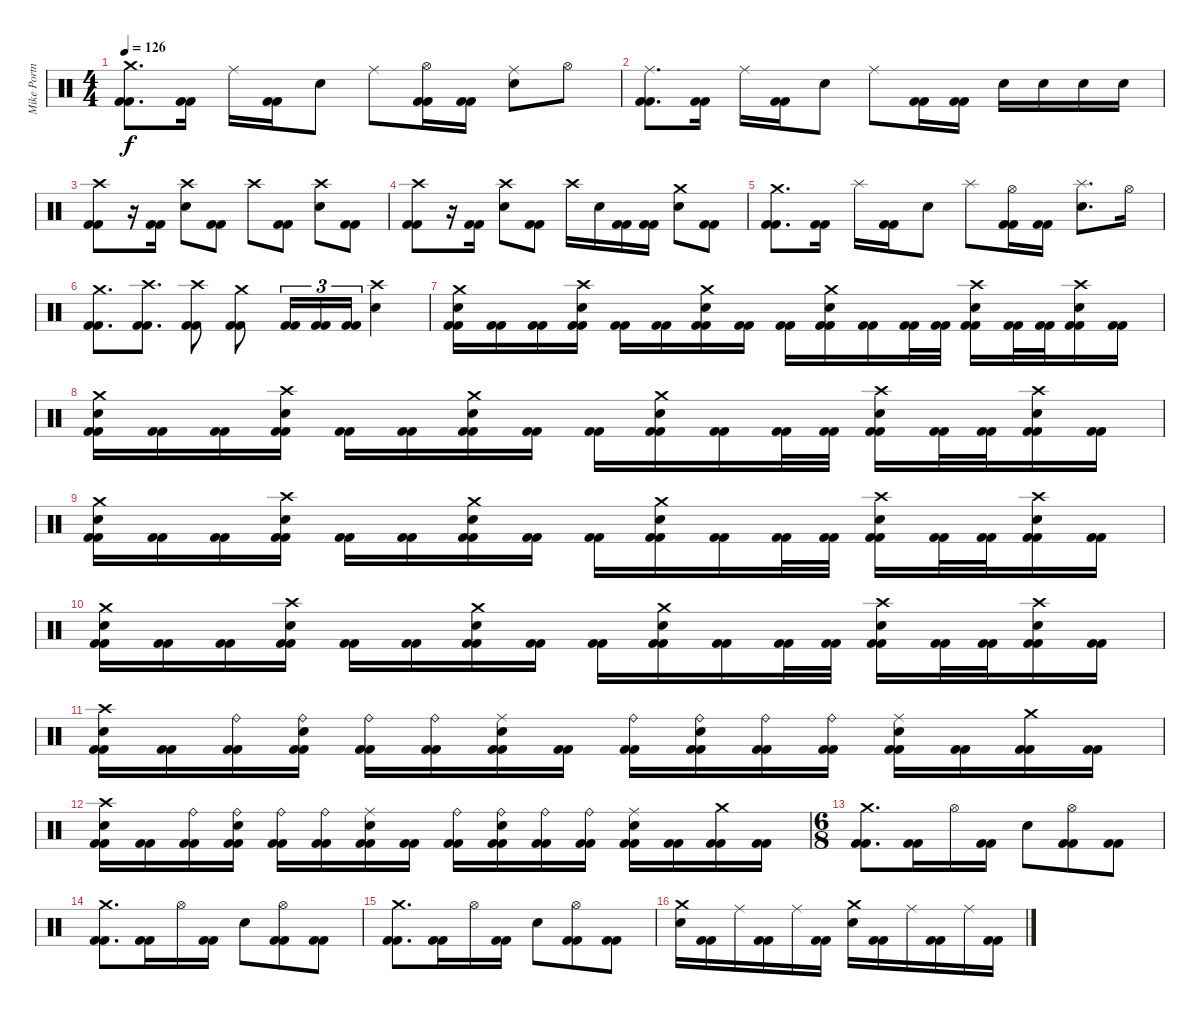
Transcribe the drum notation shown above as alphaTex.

\track ("Mike Portnoy" "Mike Portn") {instrument percussion}
\staff {score}
\articulation defaults
\ts (4 4)
\tempo 126
\clef neutral
\ks c
("Crash medium (hit)" "Kick (hit) 2" "Kick (hit) 2").8{d dy f} ("Kick (hit) 2" "Kick (hit) 2").16 "Ride (middle)".16 ("Kick (hit) 2" "Kick (hit) 2").16 "Electric Snare (hit)".8 "Ride (middle)".8 ("Hi-Hat (open)" "Kick (hit) 2" "Kick (hit) 2").16 ("Kick (hit) 2" "Kick (hit) 2").16 ("Ride (middle)" "Electric Snare (hit)").8 "Hi-Hat (open)".8 |
("Ride (middle)" "Kick (hit) 2" "Kick (hit) 2").8{d} ("Kick (hit) 2" "Kick (hit) 2").16 "Ride (middle)".16 ("Kick (hit) 2" "Kick (hit) 2").16 "Electric Snare (hit)".8 "Ride (middle)".8 ("Kick (hit) 2" "Kick (hit) 2").16 ("Kick (hit) 2" "Kick (hit) 2").16 "Electric Snare (hit)".16 "Electric Snare (hit)".16 "Electric Snare (hit)".16 "Electric Snare (hit)".16 |
("Crash high (hit)" "Kick (hit) 2" "Kick (hit) 2").8 r.16 ("Kick (hit) 2" "Kick (hit) 2").16 ("Crash high (hit)" "Electric Snare (hit)").8 ("Kick (hit) 2" "Kick (hit) 2").8 "Crash high (hit)".8 ("Kick (hit) 2" "Kick (hit) 2").8 ("Crash high (hit)" "Electric Snare (hit)").8 ("Kick (hit) 2" "Kick (hit) 2").8 |
("Crash high (hit)" "Kick (hit) 2" "Kick (hit) 2").8 r.16 ("Kick (hit) 2" "Kick (hit) 2").16 ("Crash high (hit)" "Electric Snare (hit)").8 ("Kick (hit) 2" "Kick (hit) 2").8 "Crash high (hit)".16 "Electric Snare (hit)".16 ("Kick (hit) 2" "Kick (hit) 2").16 ("Kick (hit) 2" "Kick (hit) 2").16 ("Crash medium (hit)" "Electric Snare (hit)").8 ("Kick (hit) 2" "Kick (hit) 2").8 |
("Crash medium (hit)" "Kick (hit) 2" "Kick (hit) 2").8{d} ("Kick (hit) 2" "Kick (hit) 2").16 "Splash (hit)".16 ("Kick (hit) 2" "Kick (hit) 2").16 "Electric Snare (hit)".8 "Splash (hit)".8 ("Hi-Hat (open)" "Kick (hit) 2" "Kick (hit) 2").16 ("Kick (hit) 2" "Kick (hit) 2").16 ("Splash (hit)" "Electric Snare (hit)").8{d} "Hi-Hat (open)".16 |
("Crash medium (hit)" "Kick (hit) 2" "Kick (hit) 2").8{d} ("Crash high (hit)" "Kick (hit) 2" "Kick (hit) 2").8{d} ("Crash high (hit)" "Kick (hit) 2" "Kick (hit) 2").8 ("Crash medium (hit)" "Kick (hit) 2" "Kick (hit) 2").8 ("Kick (hit) 2" "Kick (hit) 2").16{tu (3 2)} ("Kick (hit) 2" "Kick (hit) 2").16{tu (3 2)} ("Kick (hit) 2" "Kick (hit) 2").16{tu (3 2)} ("Crash high (hit)" "Electric Snare (hit)").4 |
("Crash medium (hit)" "Electric Snare (hit)" "Kick (hit) 2" "Kick (hit) 2").16 ("Kick (hit) 2" "Kick (hit) 2").16 ("Kick (hit) 2" "Kick (hit) 2").16 ("Crash high (hit)" "Electric Snare (hit)" "Kick (hit) 2" "Kick (hit) 2").16 ("Kick (hit) 2" "Kick (hit) 2").16 ("Kick (hit) 2" "Kick (hit) 2").16 ("Crash medium (hit)" "Electric Snare (hit)" "Kick (hit) 2" "Kick (hit) 2").16 ("Kick (hit) 2" "Kick (hit) 2").16 ("Kick (hit) 2" "Kick (hit) 2").16 ("Crash medium (hit)" "Electric Snare (hit)" "Kick (hit) 2" "Kick (hit) 2").16 ("Kick (hit) 2" "Kick (hit) 2").16 ("Kick (hit) 2" "Kick (hit) 2").32 ("Kick (hit) 2" "Kick (hit) 2").32 ("Crash high (hit)" "Electric Snare (hit)" "Kick (hit) 2" "Kick (hit) 2").16 ("Kick (hit) 2" "Kick (hit) 2").32 ("Kick (hit) 2" "Kick (hit) 2").32 ("Crash high (hit)" "Electric Snare (hit)" "Kick (hit) 2" "Kick (hit) 2").16 ("Kick (hit) 2" "Kick (hit) 2").16 |
("Crash medium (hit)" "Electric Snare (hit)" "Kick (hit) 2" "Kick (hit) 2").16 ("Kick (hit) 2" "Kick (hit) 2").16 ("Kick (hit) 2" "Kick (hit) 2").16 ("Crash high (hit)" "Electric Snare (hit)" "Kick (hit) 2" "Kick (hit) 2").16 ("Kick (hit) 2" "Kick (hit) 2").16 ("Kick (hit) 2" "Kick (hit) 2").16 ("Crash medium (hit)" "Electric Snare (hit)" "Kick (hit) 2" "Kick (hit) 2").16 ("Kick (hit) 2" "Kick (hit) 2").16 ("Kick (hit) 2" "Kick (hit) 2").16 ("Crash medium (hit)" "Electric Snare (hit)" "Kick (hit) 2" "Kick (hit) 2").16 ("Kick (hit) 2" "Kick (hit) 2").16 ("Kick (hit) 2" "Kick (hit) 2").32 ("Kick (hit) 2" "Kick (hit) 2").32 ("Crash high (hit)" "Electric Snare (hit)" "Kick (hit) 2" "Kick (hit) 2").16 ("Kick (hit) 2" "Kick (hit) 2").32 ("Kick (hit) 2" "Kick (hit) 2").32 ("Crash high (hit)" "Electric Snare (hit)" "Kick (hit) 2" "Kick (hit) 2").16 ("Kick (hit) 2" "Kick (hit) 2").16 |
("Crash medium (hit)" "Electric Snare (hit)" "Kick (hit) 2" "Kick (hit) 2").16 ("Kick (hit) 2" "Kick (hit) 2").16 ("Kick (hit) 2" "Kick (hit) 2").16 ("Crash high (hit)" "Electric Snare (hit)" "Kick (hit) 2" "Kick (hit) 2").16 ("Kick (hit) 2" "Kick (hit) 2").16 ("Kick (hit) 2" "Kick (hit) 2").16 ("Crash medium (hit)" "Electric Snare (hit)" "Kick (hit) 2" "Kick (hit) 2").16 ("Kick (hit) 2" "Kick (hit) 2").16 ("Kick (hit) 2" "Kick (hit) 2").16 ("Crash medium (hit)" "Electric Snare (hit)" "Kick (hit) 2" "Kick (hit) 2").16 ("Kick (hit) 2" "Kick (hit) 2").16 ("Kick (hit) 2" "Kick (hit) 2").32 ("Kick (hit) 2" "Kick (hit) 2").32 ("Crash high (hit)" "Electric Snare (hit)" "Kick (hit) 2" "Kick (hit) 2").16 ("Kick (hit) 2" "Kick (hit) 2").32 ("Kick (hit) 2" "Kick (hit) 2").32 ("Crash high (hit)" "Electric Snare (hit)" "Kick (hit) 2" "Kick (hit) 2").16 ("Kick (hit) 2" "Kick (hit) 2").16 |
("Crash medium (hit)" "Electric Snare (hit)" "Kick (hit) 2" "Kick (hit) 2").16 ("Kick (hit) 2" "Kick (hit) 2").16 ("Kick (hit) 2" "Kick (hit) 2").16 ("Crash high (hit)" "Electric Snare (hit)" "Kick (hit) 2" "Kick (hit) 2").16 ("Kick (hit) 2" "Kick (hit) 2").16 ("Kick (hit) 2" "Kick (hit) 2").16 ("Crash medium (hit)" "Electric Snare (hit)" "Kick (hit) 2" "Kick (hit) 2").16 ("Kick (hit) 2" "Kick (hit) 2").16 ("Kick (hit) 2" "Kick (hit) 2").16 ("Crash medium (hit)" "Electric Snare (hit)" "Kick (hit) 2" "Kick (hit) 2").16 ("Kick (hit) 2" "Kick (hit) 2").16 ("Kick (hit) 2" "Kick (hit) 2").32 ("Kick (hit) 2" "Kick (hit) 2").32 ("Crash high (hit)" "Electric Snare (hit)" "Kick (hit) 2" "Kick (hit) 2").16 ("Kick (hit) 2" "Kick (hit) 2").32 ("Kick (hit) 2" "Kick (hit) 2").32 ("Crash high (hit)" "Electric Snare (hit)" "Kick (hit) 2" "Kick (hit) 2").16 ("Kick (hit) 2" "Kick (hit) 2").16 |
("Crash high (hit)" "Electric Snare (hit)" "Kick (hit) 2" "Kick (hit) 2").16 ("Kick (hit) 2" "Kick (hit) 2").16 ("Ride (bell)" "Kick (hit) 2" "Kick (hit) 2").16 ("Ride (bell)" "Electric Snare (hit)" "Kick (hit) 2" "Kick (hit) 2").16 ("Ride (bell)" "Kick (hit) 2" "Kick (hit) 2").16 ("Ride (bell)" "Kick (hit) 2" "Kick (hit) 2").16 ("Ride (middle)" "Electric Snare (hit)" "Kick (hit) 2" "Kick (hit) 2").16 ("Kick (hit) 2" "Kick (hit) 2").16 ("Ride (bell)" "Kick (hit) 2" "Kick (hit) 2").16 ("Ride (bell)" "Electric Snare (hit)" "Kick (hit) 2" "Kick (hit) 2").16 ("Ride (bell)" "Kick (hit) 2" "Kick (hit) 2").16 ("Ride (bell)" "Kick (hit) 2" "Kick (hit) 2").16 ("Ride (middle)" "Electric Snare (hit)" "Kick (hit) 2" "Kick (hit) 2").16 ("Kick (hit) 2" "Kick (hit) 2").16 ("Crash medium (hit)" "Kick (hit) 2" "Kick (hit) 2").16 ("Kick (hit) 2" "Kick (hit) 2").16 |
("Crash high (hit)" "Electric Snare (hit)" "Kick (hit) 2" "Kick (hit) 2").16 ("Kick (hit) 2" "Kick (hit) 2").16 ("Ride (bell)" "Kick (hit) 2" "Kick (hit) 2").16 ("Ride (bell)" "Electric Snare (hit)" "Kick (hit) 2" "Kick (hit) 2").16 ("Ride (bell)" "Kick (hit) 2" "Kick (hit) 2").16 ("Ride (bell)" "Kick (hit) 2" "Kick (hit) 2").16 ("Ride (middle)" "Electric Snare (hit)" "Kick (hit) 2" "Kick (hit) 2").16 ("Kick (hit) 2" "Kick (hit) 2").16 ("Ride (bell)" "Kick (hit) 2" "Kick (hit) 2").16 ("Ride (bell)" "Electric Snare (hit)" "Kick (hit) 2" "Kick (hit) 2").16 ("Ride (bell)" "Kick (hit) 2" "Kick (hit) 2").16 ("Ride (bell)" "Kick (hit) 2" "Kick (hit) 2").16 ("Ride (middle)" "Electric Snare (hit)" "Kick (hit) 2" "Kick (hit) 2").16 ("Kick (hit) 2" "Kick (hit) 2").16 ("Crash medium (hit)" "Kick (hit) 2" "Kick (hit) 2").16 ("Kick (hit) 2" "Kick (hit) 2").16 |
\ts (6 8)
("Crash medium (hit)" "Kick (hit) 2" "Kick (hit) 2").8{d} ("Kick (hit) 2" "Kick (hit) 2").16 "Hi-Hat (open)".16 ("Kick (hit) 2" "Kick (hit) 2").16 "Snare (hit) 2".8 ("Hi-Hat (open)" "Kick (hit) 2" "Kick (hit) 2").8 ("Kick (hit) 2" "Kick (hit) 2").8 |
("Crash medium (hit)" "Kick (hit) 2" "Kick (hit) 2").8{d} ("Kick (hit) 2" "Kick (hit) 2").16 "Hi-Hat (open)".16 ("Kick (hit) 2" "Kick (hit) 2").16 "Snare (hit) 2".8 ("Hi-Hat (open)" "Kick (hit) 2" "Kick (hit) 2").8 ("Kick (hit) 2" "Kick (hit) 2").8 |
("Crash medium (hit)" "Kick (hit) 2" "Kick (hit) 2").8{d} ("Kick (hit) 2" "Kick (hit) 2").16 "Hi-Hat (open)".16 ("Kick (hit) 2" "Kick (hit) 2").16 "Snare (hit) 2".8 ("Hi-Hat (open)" "Kick (hit) 2" "Kick (hit) 2").8 ("Kick (hit) 2" "Kick (hit) 2").8 |
("Crash medium (hit)" "Electric Snare (hit)").16 ("Kick (hit) 2" "Kick (hit) 2").16 "Ride (middle)".16 ("Kick (hit) 2" "Kick (hit) 2").16 "Ride (middle)".16 ("Kick (hit) 2" "Kick (hit) 2").16 ("Crash medium (hit)" "Electric Snare (hit)").16 ("Kick (hit) 2" "Kick (hit) 2").16 "Ride (middle)".16 ("Kick (hit) 2" "Kick (hit) 2").16 "Ride (middle)".16 ("Kick (hit) 2" "Kick (hit) 2").16
